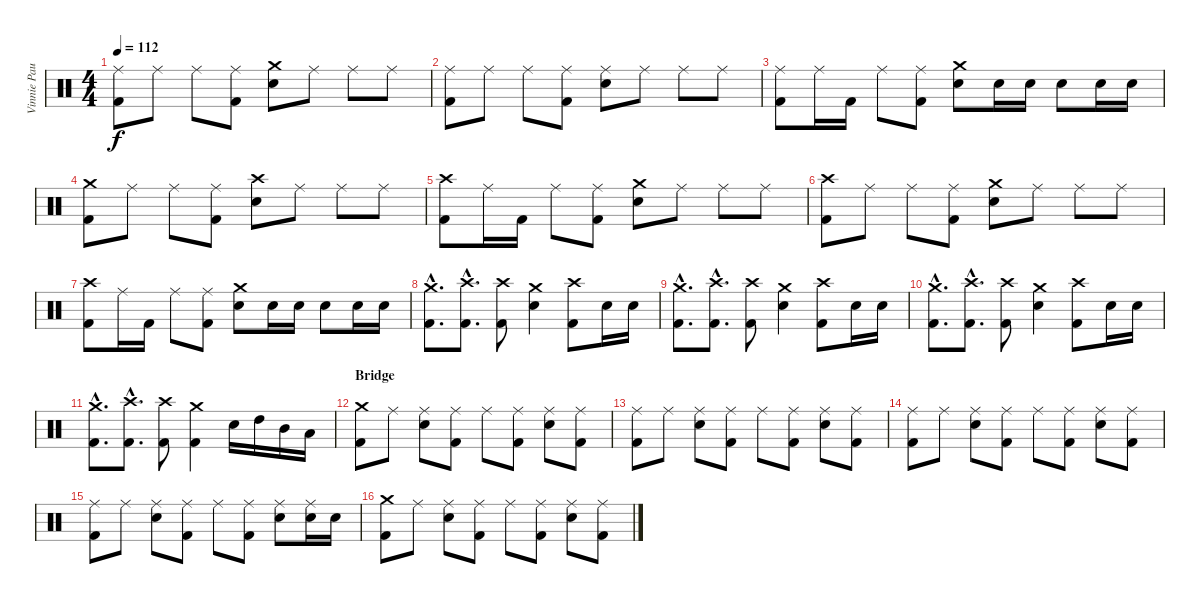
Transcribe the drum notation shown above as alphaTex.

\track ("Vinnie Paul" "Vinnie Pau") {instrument percussion}
\staff {score}
\articulation defaults
\ts (4 4)
\tempo 112
\clef neutral
\ks c
("Ride (middle)" "Kick (hit) 2").8{dy f} "Ride (middle)".8 "Ride (middle)".8 ("Ride (middle)" "Kick (hit) 2").8 ("Crash medium (hit)" "Electric Snare (hit)").8 "Ride (middle)".8 "Ride (middle)".8 "Ride (middle)".8 |
("Ride (middle)" "Kick (hit) 2").8 "Ride (middle)".8 "Ride (middle)".8 ("Ride (middle)" "Kick (hit) 2").8 ("Ride (middle)" "Electric Snare (hit)").8 "Ride (middle)".8 "Ride (middle)".8 "Ride (middle)".8 |
("Ride (middle)" "Kick (hit) 2").8 "Ride (middle)".16 "Kick (hit) 2".16 "Ride (middle)".8 ("Ride (middle)" "Kick (hit) 2").8 ("Crash medium (hit)" "Electric Snare (hit)").8 "Electric Snare (hit)".16 "Electric Snare (hit)".16 "Electric Snare (hit)".8 "Electric Snare (hit)".16 "Electric Snare (hit)".16 |
("Crash medium (hit)" "Kick (hit) 2").8 "Ride (middle)".8 "Ride (middle)".8 ("Ride (middle)" "Kick (hit) 2").8 ("Crash high (hit)" "Electric Snare (hit)").8 "Ride (middle)".8 "Ride (middle)".8 "Ride (middle)".8 |
("Crash high (hit)" "Kick (hit) 2").8 "Ride (middle)".16 "Kick (hit) 2".16 "Ride (middle)".8 ("Ride (middle)" "Kick (hit) 2").8 ("Crash medium (hit)" "Electric Snare (hit)").8 "Ride (middle)".8 "Ride (middle)".8 "Ride (middle)".8 |
("Crash high (hit)" "Kick (hit) 2").8 "Ride (middle)".8 "Ride (middle)".8 ("Ride (middle)" "Kick (hit) 2").8 ("Crash medium (hit)" "Electric Snare (hit)").8 "Ride (middle)".8 "Ride (middle)".8 "Ride (middle)".8 |
("Crash high (hit)" "Kick (hit) 2").8 "Ride (middle)".16 "Kick (hit) 2".16 "Ride (middle)".8 ("Ride (middle)" "Kick (hit) 2").8 ("Crash medium (hit)" "Electric Snare (hit)").8 "Electric Snare (hit)".16 "Electric Snare (hit)".16 "Electric Snare (hit)".8 "Electric Snare (hit)".16 "Electric Snare (hit)".16 |
("Crash medium (hit)"{hac} "Kick (hit) 2"{hac}).8{d} ("Crash high (hit)"{hac} "Kick (hit) 2"{hac}).8{d} ("Crash high (hit)" "Kick (hit) 2").8 ("Crash medium (hit)" "Electric Snare (hit)").4 ("Crash high (hit)" "Kick (hit) 2").8 "Electric Snare (hit)".16 "Electric Snare (hit)".16 |
("Crash medium (hit)"{hac} "Kick (hit) 2"{hac}).8{d} ("Crash high (hit)"{hac} "Kick (hit) 2"{hac}).8{d} ("Crash high (hit)" "Kick (hit) 2").8 ("Crash medium (hit)" "Electric Snare (hit)").4 ("Crash high (hit)" "Kick (hit) 2").8 "Electric Snare (hit)".16 "Electric Snare (hit)".16 |
("Crash medium (hit)"{hac} "Kick (hit) 2"{hac}).8{d} ("Crash high (hit)"{hac} "Kick (hit) 2"{hac}).8{d} ("Crash high (hit)" "Kick (hit) 2").8 ("Crash medium (hit)" "Electric Snare (hit)").4 ("Crash high (hit)" "Kick (hit) 2").8 "Electric Snare (hit)".16 "Electric Snare (hit)".16 |
("Crash medium (hit)"{hac} "Kick (hit) 2"{hac}).8{d} ("Crash high (hit)"{hac} "Kick (hit) 2"{hac}).8{d} ("Crash high (hit)" "Kick (hit) 2").8 ("Crash medium (hit)" "Kick (hit) 2").4 "Electric Snare (hit)".16 "High Tom (hit)".16 "Mid Tom (hit)".16 "Low Tom (hit)".16 |
\section ("" "Bridge")
("Crash medium (hit)" "Kick (hit) 2").8 "Ride (middle)".8 ("Ride (middle)" "Electric Snare (hit)").8 ("Ride (middle)" "Kick (hit) 2").8 "Ride (middle)".8 ("Ride (middle)" "Kick (hit) 2").8 ("Ride (middle)" "Electric Snare (hit)").8 ("Ride (middle)" "Kick (hit) 2").8 |
("Ride (middle)" "Kick (hit) 2").8 "Ride (middle)".8 ("Ride (middle)" "Electric Snare (hit)").8 ("Ride (middle)" "Kick (hit) 2").8 "Ride (middle)".8 ("Ride (middle)" "Kick (hit) 2").8 ("Ride (middle)" "Electric Snare (hit)").8 ("Ride (middle)" "Kick (hit) 2").8 |
("Ride (middle)" "Kick (hit) 2").8 "Ride (middle)".8 ("Ride (middle)" "Electric Snare (hit)").8 ("Ride (middle)" "Kick (hit) 2").8 "Ride (middle)".8 ("Ride (middle)" "Kick (hit) 2").8 ("Ride (middle)" "Electric Snare (hit)").8 ("Ride (middle)" "Kick (hit) 2").8 |
("Ride (middle)" "Kick (hit) 2").8 "Ride (middle)".8 ("Ride (middle)" "Electric Snare (hit)").8 ("Ride (middle)" "Kick (hit) 2").8 "Ride (middle)".8 ("Ride (middle)" "Kick (hit) 2").8 ("Ride (middle)" "Electric Snare (hit)").8 ("Ride (middle)" "Electric Snare (hit)").16 "Electric Snare (hit)".16 |
("Crash medium (hit)" "Kick (hit) 2").8 "Ride (middle)".8 ("Ride (middle)" "Electric Snare (hit)").8 ("Ride (middle)" "Kick (hit) 2").8 "Ride (middle)".8 ("Ride (middle)" "Kick (hit) 2").8 ("Ride (middle)" "Electric Snare (hit)").8 ("Ride (middle)" "Kick (hit) 2").8
